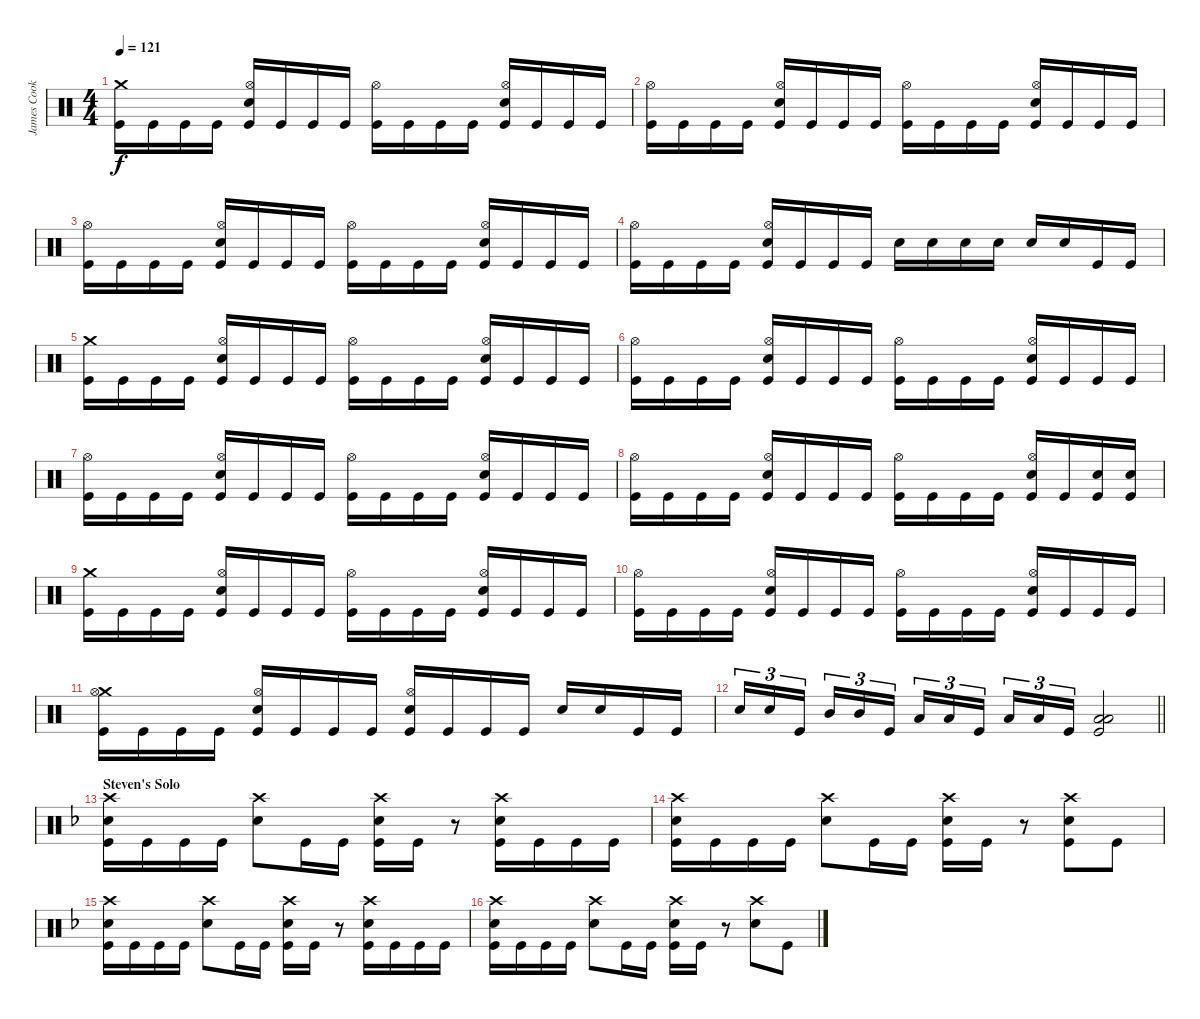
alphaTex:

\track ("James Cook" "James Cook") {instrument percussion}
\staff {score}
\articulation defaults
\ts (4 4)
\tempo 121
\clef neutral
\ks c
("Crash medium (hit)" "Kick (hit)").16{dy f} "Kick (hit)".16 "Kick (hit)".16 "Kick (hit)".16 ("Hi-Hat (open)" "Snare (hit) 2" "Kick (hit)").16 "Kick (hit)".16 "Kick (hit)".16 "Kick (hit)".16 ("Hi-Hat (open)" "Kick (hit)").16 "Kick (hit)".16 "Kick (hit)".16 "Kick (hit)".16 ("Hi-Hat (open)" "Snare (hit) 2" "Kick (hit)").16 "Kick (hit)".16 "Kick (hit)".16 "Kick (hit)".16 |
("Hi-Hat (open)" "Kick (hit)").16 "Kick (hit)".16 "Kick (hit)".16 "Kick (hit)".16 ("Hi-Hat (open)" "Snare (hit) 2" "Kick (hit)").16 "Kick (hit)".16 "Kick (hit)".16 "Kick (hit)".16 ("Hi-Hat (open)" "Kick (hit)").16 "Kick (hit)".16 "Kick (hit)".16 "Kick (hit)".16 ("Hi-Hat (open)" "Snare (hit) 2" "Kick (hit)").16 "Kick (hit)".16 "Kick (hit)".16 "Kick (hit)".16 |
("Hi-Hat (open)" "Kick (hit)").16 "Kick (hit)".16 "Kick (hit)".16 "Kick (hit)".16 ("Hi-Hat (open)" "Snare (hit) 2" "Kick (hit)").16 "Kick (hit)".16 "Kick (hit)".16 "Kick (hit)".16 ("Hi-Hat (open)" "Kick (hit)").16 "Kick (hit)".16 "Kick (hit)".16 "Kick (hit)".16 ("Hi-Hat (open)" "Snare (hit) 2" "Kick (hit)").16 "Kick (hit)".16 "Kick (hit)".16 "Kick (hit)".16 |
("Hi-Hat (open)" "Kick (hit)").16 "Kick (hit)".16 "Kick (hit)".16 "Kick (hit)".16 ("Hi-Hat (open)" "Snare (hit) 2" "Kick (hit)").16 "Kick (hit)".16 "Kick (hit)".16 "Kick (hit)".16 "Snare (hit) 2".16 "Snare (hit) 2".16 "Snare (hit) 2".16 "Snare (hit) 2".16 "Snare (hit) 2".16 "Snare (hit) 2".16 "Kick (hit)".16 "Kick (hit)".16 |
("Crash medium (hit)" "Kick (hit)").16 "Kick (hit)".16 "Kick (hit)".16 "Kick (hit)".16 ("Hi-Hat (open)" "Snare (hit) 2" "Kick (hit)").16 "Kick (hit)".16 "Kick (hit)".16 "Kick (hit)".16 ("Hi-Hat (open)" "Kick (hit)").16 "Kick (hit)".16 "Kick (hit)".16 "Kick (hit)".16 ("Hi-Hat (open)" "Snare (hit) 2" "Kick (hit)").16 "Kick (hit)".16 "Kick (hit)".16 "Kick (hit)".16 |
("Hi-Hat (open)" "Kick (hit)").16 "Kick (hit)".16 "Kick (hit)".16 "Kick (hit)".16 ("Hi-Hat (open)" "Snare (hit) 2" "Kick (hit)").16 "Kick (hit)".16 "Kick (hit)".16 "Kick (hit)".16 ("Hi-Hat (open)" "Kick (hit)").16 "Kick (hit)".16 "Kick (hit)".16 "Kick (hit)".16 ("Hi-Hat (open)" "Snare (hit) 2" "Kick (hit)").16 "Kick (hit)".16 "Kick (hit)".16 "Kick (hit)".16 |
("Hi-Hat (open)" "Kick (hit)").16 "Kick (hit)".16 "Kick (hit)".16 "Kick (hit)".16 ("Hi-Hat (open)" "Snare (hit) 2" "Kick (hit)").16 "Kick (hit)".16 "Kick (hit)".16 "Kick (hit)".16 ("Hi-Hat (open)" "Kick (hit)").16 "Kick (hit)".16 "Kick (hit)".16 "Kick (hit)".16 ("Hi-Hat (open)" "Snare (hit) 2" "Kick (hit)").16 "Kick (hit)".16 "Kick (hit)".16 "Kick (hit)".16 |
("Hi-Hat (open)" "Kick (hit)").16 "Kick (hit)".16 "Kick (hit)".16 "Kick (hit)".16 ("Hi-Hat (open)" "Snare (hit) 2" "Kick (hit)").16 "Kick (hit)".16 "Kick (hit)".16 "Kick (hit)".16 ("Hi-Hat (open)" "Kick (hit)").16 "Kick (hit)".16 "Kick (hit)".16 "Kick (hit)".16 ("Hi-Hat (open)" "Snare (hit) 2" "Kick (hit)").16 "Kick (hit)".16 ("Snare (hit) 2" "Kick (hit)").16 ("Snare (hit) 2" "Kick (hit)").16 |
("Crash medium (hit)" "Kick (hit)").16 "Kick (hit)".16 "Kick (hit)".16 "Kick (hit)".16 ("Hi-Hat (open)" "Snare (hit) 2" "Kick (hit)").16 "Kick (hit)".16 "Kick (hit)".16 "Kick (hit)".16 ("Hi-Hat (open)" "Kick (hit)").16 "Kick (hit)".16 "Kick (hit)".16 "Kick (hit)".16 ("Hi-Hat (open)" "Snare (hit) 2" "Kick (hit)").16 "Kick (hit)".16 "Kick (hit)".16 "Kick (hit)".16 |
("Hi-Hat (open)" "Kick (hit)").16 "Kick (hit)".16 "Kick (hit)".16 "Kick (hit)".16 ("Hi-Hat (open)" "Snare (hit) 2" "Kick (hit)").16 "Kick (hit)".16 "Kick (hit)".16 "Kick (hit)".16 ("Hi-Hat (open)" "Kick (hit)").16 "Kick (hit)".16 "Kick (hit)".16 "Kick (hit)".16 ("Hi-Hat (open)" "Snare (hit) 2" "Kick (hit)").16 "Kick (hit)".16 "Kick (hit)".16 "Kick (hit)".16 |
("Crash medium (hit)" "Hi-Hat (open)" "Kick (hit)").16 "Kick (hit)".16 "Kick (hit)".16 "Kick (hit)".16 ("Hi-Hat (open)" "Snare (hit) 2" "Kick (hit)").16 "Kick (hit)".16 "Kick (hit)".16 "Kick (hit)".16 ("Hi-Hat (open)" "Snare (hit) 2" "Kick (hit)").16 "Kick (hit)".16 "Kick (hit)".16 "Kick (hit)".16 "Snare (hit) 2".16 "Snare (hit) 2".16 "Kick (hit)".16 "Kick (hit)".16 |
\barLineRight lightlight "Snare (hit) 2".16{tu (3 2)} "Snare (hit) 2".16{tu (3 2)} "Kick (hit)".16{tu (3 2) beam splitsecondary} "Mid Tom (hit)".16{tu (3 2)} "Mid Tom (hit)".16{tu (3 2)} "Kick (hit)".16{tu (3 2)} "Low Tom (hit)".16{tu (3 2)} "Low Tom (hit)".16{tu (3 2)} "Kick (hit)".16{tu (3 2) beam splitsecondary} "Low Tom (hit)".16{tu (3 2)} "Low Tom (hit)".16{tu (3 2)} "Kick (hit)".16{tu (3 2)}
("Low Tom (hit)" "Low Floor Tom (hit)" "Kick (hit)").2 |
\section ("" "Steven's Solo")
\ks f
("Crash high (hit)" "Snare (hit) 2" "Kick (hit)").16 "Kick (hit)".16 "Kick (hit)".16 "Kick (hit)".16 ("Crash high (hit)" "Snare (hit) 2").8 "Kick (hit)".16 "Kick (hit)".16 ("Crash high (hit)" "Snare (hit) 2" "Kick (hit)").16 "Kick (hit)".16 r.8 ("Crash high (hit)" "Snare (hit) 2" "Kick (hit)").16 "Kick (hit)".16 "Kick (hit)".16 "Kick (hit)".16 |
("Crash high (hit)" "Snare (hit) 2" "Kick (hit)").16 "Kick (hit)".16 "Kick (hit)".16 "Kick (hit)".16 ("Crash high (hit)" "Snare (hit) 2").8 "Kick (hit)".16 "Kick (hit)".16 ("Crash high (hit)" "Snare (hit) 2" "Kick (hit)").16 "Kick (hit)".16 r.8 ("Crash high (hit)" "Snare (hit) 2" "Kick (hit)").8 "Kick (hit)".8 |
("Crash high (hit)" "Snare (hit) 2" "Kick (hit)").16 "Kick (hit)".16 "Kick (hit)".16 "Kick (hit)".16 ("Crash high (hit)" "Snare (hit) 2").8 "Kick (hit)".16 "Kick (hit)".16 ("Crash high (hit)" "Snare (hit) 2" "Kick (hit)").16 "Kick (hit)".16 r.8 ("Crash high (hit)" "Snare (hit) 2" "Kick (hit)").16 "Kick (hit)".16 "Kick (hit)".16 "Kick (hit)".16 |
("Crash high (hit)" "Snare (hit) 2" "Kick (hit)").16 "Kick (hit)".16 "Kick (hit)".16 "Kick (hit)".16 ("Crash high (hit)" "Snare (hit) 2").8 "Kick (hit)".16 "Kick (hit)".16 ("Crash high (hit)" "Snare (hit) 2" "Kick (hit)").16 "Kick (hit)".16 r.8 ("Crash high (hit)" "Snare (hit) 2").8 "Kick (hit)".8
